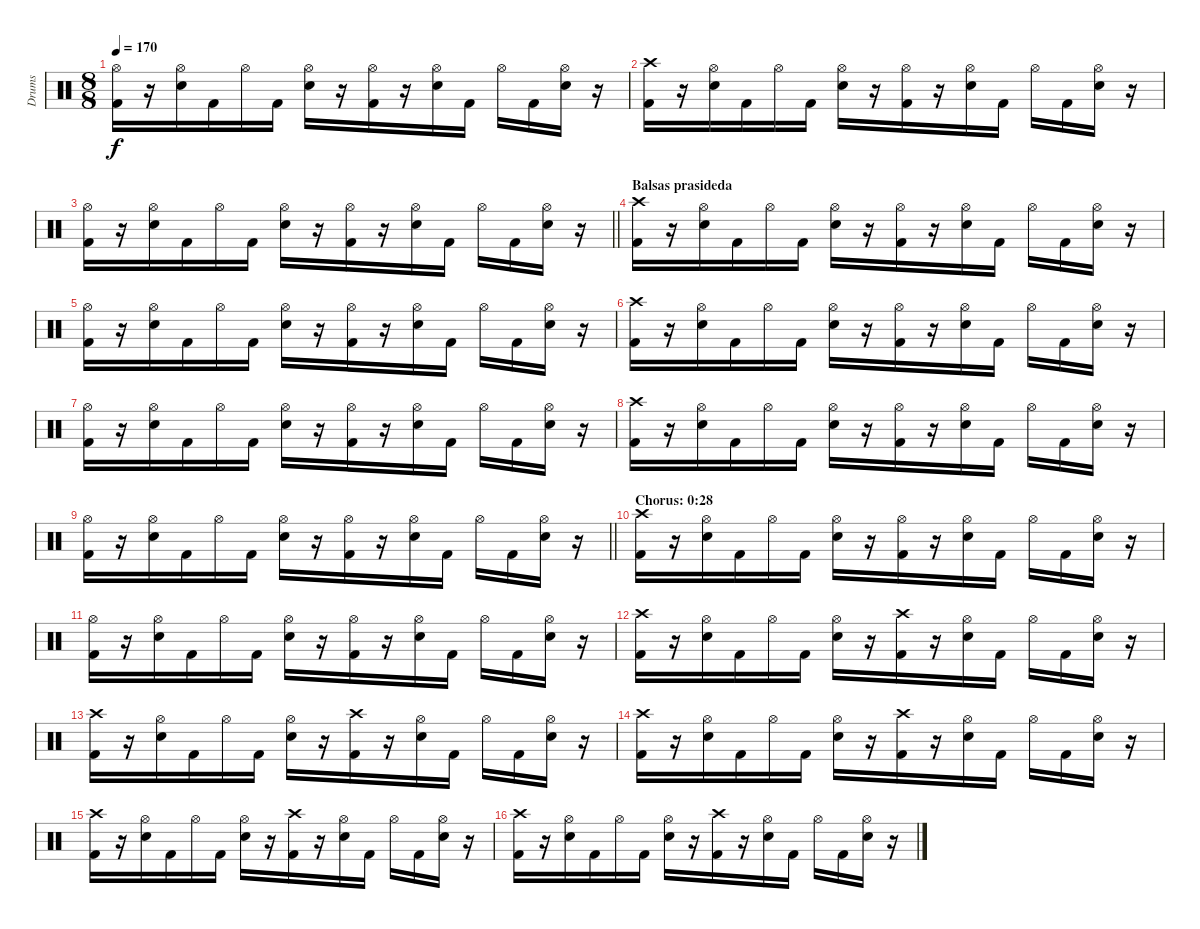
\track ("Drums" "Drums") {mute instrument percussion}
\staff {score}
\articulation defaults
\ts (8 8)
\tempo 170
\clef neutral
\ks c
("Hi-Hat (open)" "Kick (hit) 2").16{dy f} r.16 ("Hi-Hat (open)" "Snare (hit) 2").16 "Kick (hit) 2".16 "Hi-Hat (open)".16 "Kick (hit) 2".16 ("Hi-Hat (open)" "Snare (hit) 2").16 r.16 ("Hi-Hat (open)" "Kick (hit) 2").16 r.16 ("Hi-Hat (open)" "Snare (hit) 2").16 "Kick (hit) 2".16 "Hi-Hat (open)".16 "Kick (hit) 2".16 ("Hi-Hat (open)" "Snare (hit) 2").16 r.16 |
("Crash high (hit)" "Kick (hit) 2").16 r.16 ("Hi-Hat (open)" "Snare (hit) 2").16 "Kick (hit) 2".16 "Hi-Hat (open)".16 "Kick (hit) 2".16 ("Hi-Hat (open)" "Snare (hit) 2").16 r.16 ("Hi-Hat (open)" "Kick (hit) 2").16 r.16 ("Hi-Hat (open)" "Snare (hit) 2").16 "Kick (hit) 2".16 "Hi-Hat (open)".16 "Kick (hit) 2".16 ("Hi-Hat (open)" "Snare (hit) 2").16 r.16 |
\barLineRight lightlight
("Hi-Hat (open)" "Kick (hit) 2").16 r.16 ("Hi-Hat (open)" "Snare (hit) 2").16 "Kick (hit) 2".16 "Hi-Hat (open)".16 "Kick (hit) 2".16 ("Hi-Hat (open)" "Snare (hit) 2").16 r.16 ("Hi-Hat (open)" "Kick (hit) 2").16 r.16 ("Hi-Hat (open)" "Snare (hit) 2").16 "Kick (hit) 2".16 "Hi-Hat (open)".16 "Kick (hit) 2".16 ("Hi-Hat (open)" "Snare (hit) 2").16 r.16 |
\section ("" "Balsas prasideda")
("Crash high (hit)" "Kick (hit) 2").16 r.16 ("Hi-Hat (open)" "Snare (hit) 2").16 "Kick (hit) 2".16 "Hi-Hat (open)".16 "Kick (hit) 2".16 ("Hi-Hat (open)" "Snare (hit) 2").16 r.16 ("Hi-Hat (open)" "Kick (hit) 2").16 r.16 ("Hi-Hat (open)" "Snare (hit) 2").16 "Kick (hit) 2".16 "Hi-Hat (open)".16 "Kick (hit) 2".16 ("Hi-Hat (open)" "Snare (hit) 2").16 r.16 |
("Hi-Hat (open)" "Kick (hit) 2").16 r.16 ("Hi-Hat (open)" "Snare (hit) 2").16 "Kick (hit) 2".16 "Hi-Hat (open)".16 "Kick (hit) 2".16 ("Hi-Hat (open)" "Snare (hit) 2").16 r.16 ("Hi-Hat (open)" "Kick (hit) 2").16 r.16 ("Hi-Hat (open)" "Snare (hit) 2").16 "Kick (hit) 2".16 "Hi-Hat (open)".16 "Kick (hit) 2".16 ("Hi-Hat (open)" "Snare (hit) 2").16 r.16 |
("Crash high (hit)" "Kick (hit) 2").16 r.16 ("Hi-Hat (open)" "Snare (hit) 2").16 "Kick (hit) 2".16 "Hi-Hat (open)".16 "Kick (hit) 2".16 ("Hi-Hat (open)" "Snare (hit) 2").16 r.16 ("Hi-Hat (open)" "Kick (hit) 2").16 r.16 ("Hi-Hat (open)" "Snare (hit) 2").16 "Kick (hit) 2".16 "Hi-Hat (open)".16 "Kick (hit) 2".16 ("Hi-Hat (open)" "Snare (hit) 2").16 r.16 |
("Hi-Hat (open)" "Kick (hit) 2").16 r.16 ("Hi-Hat (open)" "Snare (hit) 2").16 "Kick (hit) 2".16 "Hi-Hat (open)".16 "Kick (hit) 2".16 ("Hi-Hat (open)" "Snare (hit) 2").16 r.16 ("Hi-Hat (open)" "Kick (hit) 2").16 r.16 ("Hi-Hat (open)" "Snare (hit) 2").16 "Kick (hit) 2".16 "Hi-Hat (open)".16 "Kick (hit) 2".16 ("Hi-Hat (open)" "Snare (hit) 2").16 r.16 |
("Crash high (hit)" "Kick (hit) 2").16 r.16 ("Hi-Hat (open)" "Snare (hit) 2").16 "Kick (hit) 2".16 "Hi-Hat (open)".16 "Kick (hit) 2".16 ("Hi-Hat (open)" "Snare (hit) 2").16 r.16 ("Hi-Hat (open)" "Kick (hit) 2").16 r.16 ("Hi-Hat (open)" "Snare (hit) 2").16 "Kick (hit) 2".16 "Hi-Hat (open)".16 "Kick (hit) 2".16 ("Hi-Hat (open)" "Snare (hit) 2").16 r.16 |
\barLineRight lightlight
("Hi-Hat (open)" "Kick (hit) 2").16 r.16 ("Hi-Hat (open)" "Snare (hit) 2").16 "Kick (hit) 2".16 "Hi-Hat (open)".16 "Kick (hit) 2".16 ("Hi-Hat (open)" "Snare (hit) 2").16 r.16 ("Hi-Hat (open)" "Kick (hit) 2").16 r.16 ("Hi-Hat (open)" "Snare (hit) 2").16 "Kick (hit) 2".16 "Hi-Hat (open)".16 "Kick (hit) 2".16 ("Hi-Hat (open)" "Snare (hit) 2").16 r.16 |
\section ("" "Chorus: 0:28")
("Crash high (hit)" "Kick (hit) 2").16 r.16 ("Hi-Hat (open)" "Snare (hit) 2").16 "Kick (hit) 2".16 "Hi-Hat (open)".16 "Kick (hit) 2".16 ("Hi-Hat (open)" "Snare (hit) 2").16 r.16 ("Hi-Hat (open)" "Kick (hit) 2").16 r.16 ("Hi-Hat (open)" "Snare (hit) 2").16 "Kick (hit) 2".16 "Hi-Hat (open)".16 "Kick (hit) 2".16 ("Hi-Hat (open)" "Snare (hit) 2").16 r.16 |
("Hi-Hat (open)" "Kick (hit) 2").16 r.16 ("Hi-Hat (open)" "Snare (hit) 2").16 "Kick (hit) 2".16 "Hi-Hat (open)".16 "Kick (hit) 2".16 ("Hi-Hat (open)" "Snare (hit) 2").16 r.16 ("Hi-Hat (open)" "Kick (hit) 2").16 r.16 ("Hi-Hat (open)" "Snare (hit) 2").16 "Kick (hit) 2".16 "Hi-Hat (open)".16 "Kick (hit) 2".16 ("Hi-Hat (open)" "Snare (hit) 2").16 r.16 |
("Crash high (hit)" "Kick (hit) 2").16 r.16 ("Hi-Hat (open)" "Snare (hit) 2").16 "Kick (hit) 2".16 "Hi-Hat (open)".16 "Kick (hit) 2".16 ("Hi-Hat (open)" "Snare (hit) 2").16 r.16 ("Crash high (hit)" "Kick (hit) 2").16 r.16 ("Hi-Hat (open)" "Snare (hit) 2").16 "Kick (hit) 2".16 "Hi-Hat (open)".16 "Kick (hit) 2".16 ("Hi-Hat (open)" "Snare (hit) 2").16 r.16 |
("Crash high (hit)" "Kick (hit) 2").16 r.16 ("Hi-Hat (open)" "Snare (hit) 2").16 "Kick (hit) 2".16 "Hi-Hat (open)".16 "Kick (hit) 2".16 ("Hi-Hat (open)" "Snare (hit) 2").16 r.16 ("Crash high (hit)" "Kick (hit) 2").16 r.16 ("Hi-Hat (open)" "Snare (hit) 2").16 "Kick (hit) 2".16 "Hi-Hat (open)".16 "Kick (hit) 2".16 ("Hi-Hat (open)" "Snare (hit) 2").16 r.16 |
("Crash high (hit)" "Kick (hit) 2").16 r.16 ("Hi-Hat (open)" "Snare (hit) 2").16 "Kick (hit) 2".16 "Hi-Hat (open)".16 "Kick (hit) 2".16 ("Hi-Hat (open)" "Snare (hit) 2").16 r.16 ("Crash high (hit)" "Kick (hit) 2").16 r.16 ("Hi-Hat (open)" "Snare (hit) 2").16 "Kick (hit) 2".16 "Hi-Hat (open)".16 "Kick (hit) 2".16 ("Hi-Hat (open)" "Snare (hit) 2").16 r.16 |
("Crash high (hit)" "Kick (hit) 2").16 r.16 ("Hi-Hat (open)" "Snare (hit) 2").16 "Kick (hit) 2".16 "Hi-Hat (open)".16 "Kick (hit) 2".16 ("Hi-Hat (open)" "Snare (hit) 2").16 r.16 ("Crash high (hit)" "Kick (hit) 2").16 r.16 ("Hi-Hat (open)" "Snare (hit) 2").16 "Kick (hit) 2".16 "Hi-Hat (open)".16 "Kick (hit) 2".16 ("Hi-Hat (open)" "Snare (hit) 2").16 r.16 |
("Crash high (hit)" "Kick (hit) 2").16 r.16 ("Hi-Hat (open)" "Snare (hit) 2").16 "Kick (hit) 2".16 "Hi-Hat (open)".16 "Kick (hit) 2".16 ("Hi-Hat (open)" "Snare (hit) 2").16 r.16 ("Crash high (hit)" "Kick (hit) 2").16 r.16 ("Hi-Hat (open)" "Snare (hit) 2").16 "Kick (hit) 2".16 "Hi-Hat (open)".16 "Kick (hit) 2".16 ("Hi-Hat (open)" "Snare (hit) 2").16 r.16
